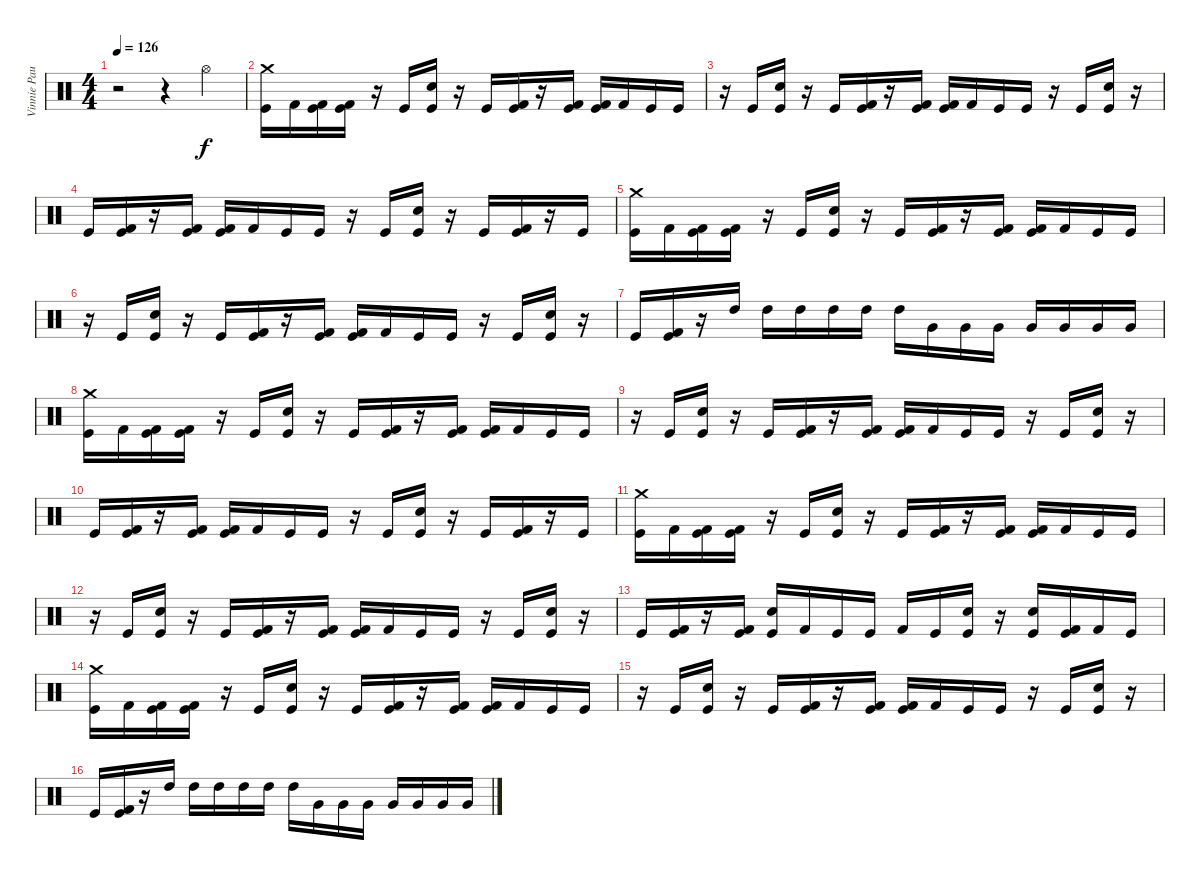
\track ("Vinnie Paul" "Vinnie Pau") {instrument percussion}
\staff {score}
\articulation defaults
\ts (4 4)
\tempo 126
\clef neutral
\ks c
r.2{dy f} r.4 "Hi-Hat (open)".4 |
("Kick (hit)" "Crash medium (hit)").16 "Kick (hit) 2".16 ("Kick (hit)" "Kick (hit) 2").16 ("Kick (hit)" "Kick (hit) 2").16 r.16 "Kick (hit)".16 ("Kick (hit)" "Snare (hit) 2").16 r.16 "Kick (hit)".16 ("Kick (hit)" "Kick (hit) 2").16 r.16 ("Kick (hit)" "Kick (hit) 2").16 ("Kick (hit)" "Kick (hit) 2").16 "Kick (hit) 2".16 "Kick (hit)".16 "Kick (hit)".16 |
r.16 "Kick (hit)".16 ("Kick (hit)" "Snare (hit) 2").16 r.16 "Kick (hit)".16 ("Kick (hit)" "Kick (hit) 2").16 r.16 ("Kick (hit)" "Kick (hit) 2").16 ("Kick (hit)" "Kick (hit) 2").16 "Kick (hit) 2".16 "Kick (hit)".16 "Kick (hit)".16 r.16 "Kick (hit)".16 ("Kick (hit)" "Snare (hit) 2").16 r.16 |
"Kick (hit)".16 ("Kick (hit)" "Kick (hit) 2").16 r.16 ("Kick (hit)" "Kick (hit) 2").16 ("Kick (hit)" "Kick (hit) 2").16 "Kick (hit) 2".16 "Kick (hit)".16 "Kick (hit)".16 r.16 "Kick (hit)".16 ("Kick (hit)" "Snare (hit) 2").16 r.16 "Kick (hit)".16 ("Kick (hit)" "Kick (hit) 2").16 r.16 "Kick (hit)".16 |
("Kick (hit)" "Crash medium (hit)").16 "Kick (hit) 2".16 ("Kick (hit)" "Kick (hit) 2").16 ("Kick (hit)" "Kick (hit) 2").16 r.16 "Kick (hit)".16 ("Kick (hit)" "Snare (hit) 2").16 r.16 "Kick (hit)".16 ("Kick (hit)" "Kick (hit) 2").16 r.16 ("Kick (hit)" "Kick (hit) 2").16 ("Kick (hit)" "Kick (hit) 2").16 "Kick (hit) 2".16 "Kick (hit)".16 "Kick (hit)".16 |
r.16 "Kick (hit)".16 ("Kick (hit)" "Snare (hit) 2").16 r.16 "Kick (hit)".16 ("Kick (hit)" "Kick (hit) 2").16 r.16 ("Kick (hit)" "Kick (hit) 2").16 ("Kick (hit)" "Kick (hit) 2").16 "Kick (hit) 2".16 "Kick (hit)".16 "Kick (hit)".16 r.16 "Kick (hit)".16 ("Kick (hit)" "Snare (hit) 2").16 r.16 |
"Kick (hit)".16 ("Kick (hit)" "Kick (hit) 2").16 r.16 "High Tom (hit)".16 "High Tom (hit)".16 "High Tom (hit)".16 "High Tom (hit)".16 "High Tom (hit)".16 "High Tom (hit)".16 "Very Low Tom (hit)".16 "Very Low Tom (hit)".16 "Very Low Tom (hit)".16 "Very Low Tom (hit)".16 "Very Low Tom (hit)".16 "Very Low Tom (hit)".16 "Very Low Tom (hit)".16 |
("Kick (hit)" "Crash medium (hit)").16 "Kick (hit) 2".16 ("Kick (hit)" "Kick (hit) 2").16 ("Kick (hit)" "Kick (hit) 2").16 r.16 "Kick (hit)".16 ("Kick (hit)" "Snare (hit) 2").16 r.16 "Kick (hit)".16 ("Kick (hit)" "Kick (hit) 2").16 r.16 ("Kick (hit)" "Kick (hit) 2").16 ("Kick (hit)" "Kick (hit) 2").16 "Kick (hit) 2".16 "Kick (hit)".16 "Kick (hit)".16 |
r.16 "Kick (hit)".16 ("Kick (hit)" "Snare (hit) 2").16 r.16 "Kick (hit)".16 ("Kick (hit)" "Kick (hit) 2").16 r.16 ("Kick (hit)" "Kick (hit) 2").16 ("Kick (hit)" "Kick (hit) 2").16 "Kick (hit) 2".16 "Kick (hit)".16 "Kick (hit)".16 r.16 "Kick (hit)".16 ("Kick (hit)" "Snare (hit) 2").16 r.16 |
"Kick (hit)".16 ("Kick (hit)" "Kick (hit) 2").16 r.16 ("Kick (hit)" "Kick (hit) 2").16 ("Kick (hit)" "Kick (hit) 2").16 "Kick (hit) 2".16 "Kick (hit)".16 "Kick (hit)".16 r.16 "Kick (hit)".16 ("Kick (hit)" "Snare (hit) 2").16 r.16 "Kick (hit)".16 ("Kick (hit)" "Kick (hit) 2").16 r.16 "Kick (hit)".16 |
("Kick (hit)" "Crash medium (hit)").16 "Kick (hit) 2".16 ("Kick (hit)" "Kick (hit) 2").16 ("Kick (hit)" "Kick (hit) 2").16 r.16 "Kick (hit)".16 ("Kick (hit)" "Snare (hit) 2").16 r.16 "Kick (hit)".16 ("Kick (hit)" "Kick (hit) 2").16 r.16 ("Kick (hit)" "Kick (hit) 2").16 ("Kick (hit)" "Kick (hit) 2").16 "Kick (hit) 2".16 "Kick (hit)".16 "Kick (hit)".16 |
r.16 "Kick (hit)".16 ("Kick (hit)" "Snare (hit) 2").16 r.16 "Kick (hit)".16 ("Kick (hit)" "Kick (hit) 2").16 r.16 ("Kick (hit)" "Kick (hit) 2").16 ("Kick (hit)" "Kick (hit) 2").16 "Kick (hit) 2".16 "Kick (hit)".16 "Kick (hit)".16 r.16 "Kick (hit)".16 ("Kick (hit)" "Snare (hit) 2").16 r.16 |
"Kick (hit)".16 ("Kick (hit)" "Kick (hit) 2").16 r.16 ("Kick (hit)" "Kick (hit) 2").16 ("Kick (hit)" "Snare (hit) 2").16 "Kick (hit) 2".16 "Kick (hit)".16 "Kick (hit)".16 "Kick (hit) 2".16 "Kick (hit)".16 ("Kick (hit)" "Snare (hit) 2").16 r.16 ("Kick (hit)" "Snare (hit) 2").16 ("Kick (hit)" "Kick (hit) 2").16 "Kick (hit) 2".16 "Kick (hit)".16 |
("Kick (hit)" "Crash medium (hit)").16 "Kick (hit) 2".16 ("Kick (hit)" "Kick (hit) 2").16 ("Kick (hit)" "Kick (hit) 2").16 r.16 "Kick (hit)".16 ("Kick (hit)" "Snare (hit) 2").16 r.16 "Kick (hit)".16 ("Kick (hit)" "Kick (hit) 2").16 r.16 ("Kick (hit)" "Kick (hit) 2").16 ("Kick (hit)" "Kick (hit) 2").16 "Kick (hit) 2".16 "Kick (hit)".16 "Kick (hit)".16 |
r.16 "Kick (hit)".16 ("Kick (hit)" "Snare (hit) 2").16 r.16 "Kick (hit)".16 ("Kick (hit)" "Kick (hit) 2").16 r.16 ("Kick (hit)" "Kick (hit) 2").16 ("Kick (hit)" "Kick (hit) 2").16 "Kick (hit) 2".16 "Kick (hit)".16 "Kick (hit)".16 r.16 "Kick (hit)".16 ("Kick (hit)" "Snare (hit) 2").16 r.16 |
"Kick (hit)".16 ("Kick (hit)" "Kick (hit) 2").16 r.16 "High Tom (hit)".16 "High Tom (hit)".16 "High Tom (hit)".16 "High Tom (hit)".16 "High Tom (hit)".16 "High Tom (hit)".16 "Very Low Tom (hit)".16 "Very Low Tom (hit)".16 "Very Low Tom (hit)".16 "Very Low Tom (hit)".16 "Very Low Tom (hit)".16 "Very Low Tom (hit)".16 "Very Low Tom (hit)".16
